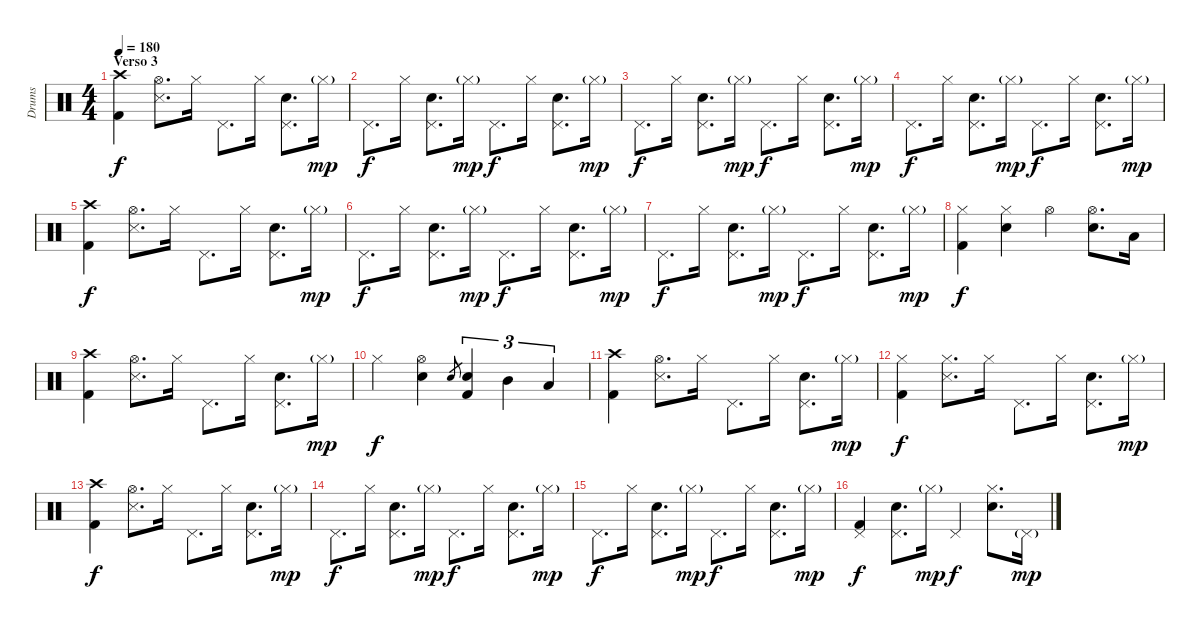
\track ("Drums" "Drums") {instrument percussion}
\staff {score}
\articulation defaults
\ts (4 4)
\section ("" "Verso 3")
\tempo 180
\clef neutral
\ks c
("Crash high (hit)" "Kick (hit) 2").4{dy f} ("Hi-Hat (open)" "Snare (side stick) 3").8{d} "Hi-Hat (closed)".16 "Pedal Hi-Hat (hit)".8{d} "Hi-Hat (closed)".16 ("Pedal Hi-Hat (hit)" "Snare (hit) 2").8{d} "Hi-Hat (closed)"{g}.16{dy mp} |
"Pedal Hi-Hat (hit)".8{d dy f} "Hi-Hat (closed)".16 ("Pedal Hi-Hat (hit)" "Snare (hit) 2").8{d} "Hi-Hat (closed)"{g}.16{dy mp} "Pedal Hi-Hat (hit)".8{d dy f} "Hi-Hat (closed)".16 ("Pedal Hi-Hat (hit)" "Snare (hit) 2").8{d} "Hi-Hat (closed)"{g}.16{dy mp} |
"Pedal Hi-Hat (hit)".8{d dy f} "Hi-Hat (closed)".16 ("Pedal Hi-Hat (hit)" "Snare (hit) 2").8{d} "Hi-Hat (closed)"{g}.16{dy mp} "Pedal Hi-Hat (hit)".8{d dy f} "Hi-Hat (closed)".16 ("Pedal Hi-Hat (hit)" "Snare (hit) 2").8{d} "Hi-Hat (closed)"{g}.16{dy mp} |
"Pedal Hi-Hat (hit)".8{d dy f} "Hi-Hat (closed)".16 ("Pedal Hi-Hat (hit)" "Snare (hit) 2").8{d} "Hi-Hat (closed)"{g}.16{dy mp} "Pedal Hi-Hat (hit)".8{d dy f} "Hi-Hat (closed)".16 ("Pedal Hi-Hat (hit)" "Snare (hit) 2").8{d} "Hi-Hat (closed)"{g}.16{dy mp} |
("Crash high (hit)" "Kick (hit) 2").4{dy f} ("Hi-Hat (open)" "Snare (side stick) 3").8{d} "Hi-Hat (closed)".16 "Pedal Hi-Hat (hit)".8{d} "Hi-Hat (closed)".16 ("Pedal Hi-Hat (hit)" "Snare (hit) 2").8{d} "Hi-Hat (closed)"{g}.16{dy mp} |
"Pedal Hi-Hat (hit)".8{d dy f} "Hi-Hat (closed)".16 ("Pedal Hi-Hat (hit)" "Snare (hit) 2").8{d} "Hi-Hat (closed)"{g}.16{dy mp} "Pedal Hi-Hat (hit)".8{d dy f} "Hi-Hat (closed)".16 ("Pedal Hi-Hat (hit)" "Snare (hit) 2").8{d} "Hi-Hat (closed)"{g}.16{dy mp} |
"Pedal Hi-Hat (hit)".8{d dy f} "Hi-Hat (closed)".16 ("Pedal Hi-Hat (hit)" "Snare (hit) 2").8{d} "Hi-Hat (closed)"{g}.16{dy mp} "Pedal Hi-Hat (hit)".8{d dy f} "Hi-Hat (closed)".16 ("Pedal Hi-Hat (hit)" "Snare (hit) 2").8{d} "Hi-Hat (closed)"{g}.16{dy mp} |
("Hi-Hat (closed)" "Kick (hit) 2").4{dy f} ("Hi-Hat (closed)" "Snare (hit) 2").4 "Hi-Hat (open)".4 ("Hi-Hat (open)" "Snare (hit) 2").8{d} "Low Tom (hit)".16 |
("Crash high (hit)" "Kick (hit) 2").4 ("Hi-Hat (open)" "Snare (side stick) 3").8{d} "Hi-Hat (closed)".16 "Pedal Hi-Hat (hit)".8{d} "Hi-Hat (closed)".16 ("Pedal Hi-Hat (hit)" "Snare (hit) 2").8{d} "Hi-Hat (closed)"{g}.16{dy mp} |
"Hi-Hat (closed)".4{dy f} ("Hi-Hat (open)" "Snare (hit) 2").4 "Snare (hit) 2".8{gr} ("Snare (hit) 2" "Kick (hit) 2").4{tu (3 2)} "Mid Tom (hit)".4{tu (3 2)} "Low Tom (hit)".4{tu (3 2)} |
("Crash high (hit)" "Kick (hit) 2").4 ("Hi-Hat (open)" "Snare (side stick) 3").8{d} "Hi-Hat (closed)".16 "Pedal Hi-Hat (hit)".8{d} "Hi-Hat (closed)".16 ("Pedal Hi-Hat (hit)" "Snare (hit) 2").8{d} "Hi-Hat (closed)"{g}.16{dy mp} |
("Hi-Hat (closed)" "Kick (hit) 2").4{dy f} ("Hi-Hat (closed)" "Snare (side stick) 3").8{d} "Hi-Hat (closed)".16 "Pedal Hi-Hat (hit)".8{d} "Hi-Hat (closed)".16 ("Pedal Hi-Hat (hit)" "Snare (hit) 2").8{d} "Hi-Hat (closed)"{g}.16{dy mp} |
("Crash high (hit)" "Kick (hit) 2").4{dy f} ("Hi-Hat (open)" "Snare (side stick) 3").8{d} "Hi-Hat (closed)".16 "Pedal Hi-Hat (hit)".8{d} "Hi-Hat (closed)".16 ("Pedal Hi-Hat (hit)" "Snare (hit) 2").8{d} "Hi-Hat (closed)"{g}.16{dy mp} |
"Pedal Hi-Hat (hit)".8{d dy f} "Hi-Hat (closed)".16 ("Pedal Hi-Hat (hit)" "Snare (hit) 2").8{d} "Hi-Hat (closed)"{g}.16{dy mp} "Pedal Hi-Hat (hit)".8{d dy f} "Hi-Hat (closed)".16 ("Pedal Hi-Hat (hit)" "Snare (hit) 2").8{d} "Hi-Hat (closed)"{g}.16{dy mp} |
"Pedal Hi-Hat (hit)".8{d dy f} "Hi-Hat (closed)".16 ("Pedal Hi-Hat (hit)" "Snare (hit) 2").8{d} "Hi-Hat (closed)"{g}.16{dy mp} "Pedal Hi-Hat (hit)".8{d dy f} "Hi-Hat (closed)".16 ("Pedal Hi-Hat (hit)" "Snare (hit) 2").8{d} "Hi-Hat (closed)"{g}.16{dy mp} |
("Pedal Hi-Hat (hit)" "Kick (hit) 2").4{dy f} ("Pedal Hi-Hat (hit)" "Snare (hit) 2").8{d} "Hi-Hat (closed)"{g}.16{dy mp} "Pedal Hi-Hat (hit)".4{dy f} ("Hi-Hat (closed)" "Snare (hit) 2").8{d} "Pedal Hi-Hat (hit)"{g}.16{dy mp}
